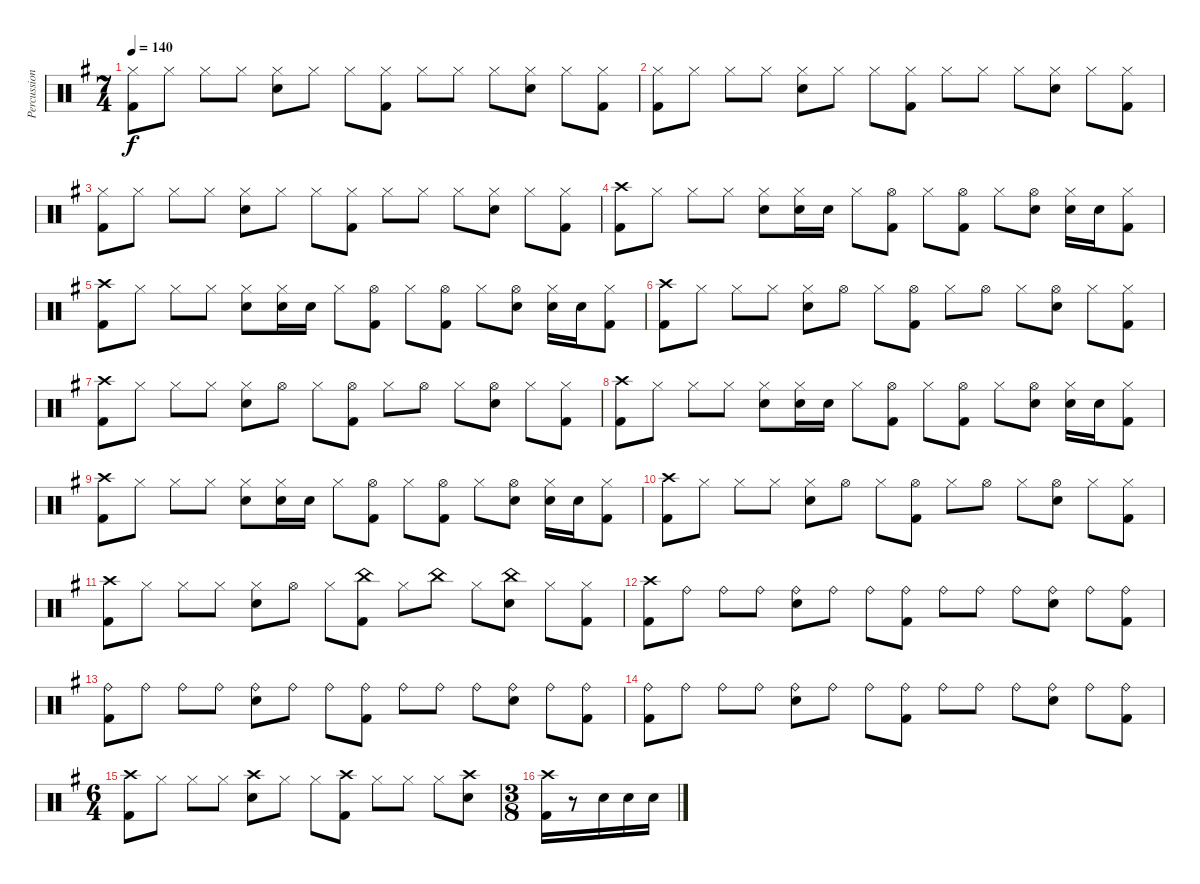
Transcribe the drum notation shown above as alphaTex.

\track ("Percussions" "Percussion") {instrument percussion}
\staff {score}
\articulation defaults
\ts (7 4)
\tempo 140
\clef neutral
\ks g
("Hi-Hat (closed)" "Kick (hit) 2").8{dy f} "Hi-Hat (closed)".8 "Hi-Hat (closed)".8 "Hi-Hat (closed)".8 ("Hi-Hat (closed)" "Snare (hit) 2").8 "Hi-Hat (closed)".8 "Hi-Hat (closed)".8 ("Hi-Hat (closed)" "Kick (hit) 2").8 "Hi-Hat (closed)".8 "Hi-Hat (closed)".8 "Hi-Hat (closed)".8 ("Hi-Hat (closed)" "Snare (hit) 2").8 "Hi-Hat (closed)".8 ("Hi-Hat (closed)" "Kick (hit) 2").8 |
("Hi-Hat (closed)" "Kick (hit) 2").8 "Hi-Hat (closed)".8 "Hi-Hat (closed)".8 "Hi-Hat (closed)".8 ("Hi-Hat (closed)" "Snare (hit) 2").8 "Hi-Hat (closed)".8 "Hi-Hat (closed)".8 ("Hi-Hat (closed)" "Kick (hit) 2").8 "Hi-Hat (closed)".8 "Hi-Hat (closed)".8 "Hi-Hat (closed)".8 ("Hi-Hat (closed)" "Snare (hit) 2").8 "Hi-Hat (closed)".8 ("Hi-Hat (closed)" "Kick (hit) 2").8 |
("Hi-Hat (closed)" "Kick (hit) 2").8 "Hi-Hat (closed)".8 "Hi-Hat (closed)".8 "Hi-Hat (closed)".8 ("Hi-Hat (closed)" "Snare (hit) 2").8 "Hi-Hat (closed)".8 "Hi-Hat (closed)".8 ("Hi-Hat (closed)" "Kick (hit) 2").8 "Hi-Hat (closed)".8 "Hi-Hat (closed)".8 "Hi-Hat (closed)".8 ("Hi-Hat (closed)" "Snare (hit) 2").8 "Hi-Hat (closed)".8 ("Hi-Hat (closed)" "Kick (hit) 2").8 |
("Crash high (hit)" "Kick (hit) 2").8 "Hi-Hat (closed)".8 "Hi-Hat (closed)".8 "Hi-Hat (closed)".8 ("Hi-Hat (closed)" "Snare (hit) 2").8 ("Hi-Hat (closed)" "Snare (hit) 2").16 "Snare (hit) 2".16 "Hi-Hat (closed)".8 ("Hi-Hat (open)" "Kick (hit) 2").8 "Hi-Hat (closed)".8 ("Hi-Hat (open)" "Kick (hit) 2").8 "Hi-Hat (closed)".8 ("Hi-Hat (open)" "Snare (hit) 2").8 ("Hi-Hat (closed)" "Snare (hit) 2").16 "Snare (hit) 2".16 ("Hi-Hat (closed)" "Kick (hit) 2").8 |
("Crash high (hit)" "Kick (hit) 2").8 "Hi-Hat (closed)".8 "Hi-Hat (closed)".8 "Hi-Hat (closed)".8 ("Hi-Hat (closed)" "Snare (hit) 2").8 ("Hi-Hat (closed)" "Snare (hit) 2").16 "Snare (hit) 2".16 "Hi-Hat (closed)".8 ("Hi-Hat (open)" "Kick (hit) 2").8 "Hi-Hat (closed)".8 ("Hi-Hat (open)" "Kick (hit) 2").8 "Hi-Hat (closed)".8 ("Hi-Hat (open)" "Snare (hit) 2").8 ("Hi-Hat (closed)" "Snare (hit) 2").16 "Snare (hit) 2".16 ("Hi-Hat (closed)" "Kick (hit) 2").8 |
("Crash high (hit)" "Kick (hit) 2").8 "Hi-Hat (closed)".8 "Hi-Hat (closed)".8 "Hi-Hat (closed)".8 ("Hi-Hat (closed)" "Snare (hit) 2").8 "Hi-Hat (open)".8 "Hi-Hat (closed)".8 ("Hi-Hat (open)" "Kick (hit) 2").8 "Hi-Hat (closed)".8 "Hi-Hat (open)".8 "Hi-Hat (closed)".8 ("Hi-Hat (open)" "Snare (hit) 2").8 "Hi-Hat (closed)".8 ("Hi-Hat (closed)" "Kick (hit) 2").8 |
("Crash high (hit)" "Kick (hit) 2").8 "Hi-Hat (closed)".8 "Hi-Hat (closed)".8 "Hi-Hat (closed)".8 ("Hi-Hat (closed)" "Snare (hit) 2").8 "Hi-Hat (open)".8 "Hi-Hat (closed)".8 ("Hi-Hat (open)" "Kick (hit) 2").8 "Hi-Hat (closed)".8 "Hi-Hat (open)".8 "Hi-Hat (closed)".8 ("Hi-Hat (open)" "Snare (hit) 2").8 "Hi-Hat (closed)".8 ("Hi-Hat (closed)" "Kick (hit) 2").8 |
("Crash high (hit)" "Kick (hit) 2").8 "Hi-Hat (closed)".8 "Hi-Hat (closed)".8 "Hi-Hat (closed)".8 ("Hi-Hat (closed)" "Snare (hit) 2").8 ("Hi-Hat (closed)" "Snare (hit) 2").16 "Snare (hit) 2".16 "Hi-Hat (closed)".8 ("Hi-Hat (open)" "Kick (hit) 2").8 "Hi-Hat (closed)".8 ("Hi-Hat (open)" "Kick (hit) 2").8 "Hi-Hat (closed)".8 ("Hi-Hat (open)" "Snare (hit) 2").8 ("Hi-Hat (closed)" "Snare (hit) 2").16 "Snare (hit) 2".16 ("Hi-Hat (closed)" "Kick (hit) 2").8 |
("Crash high (hit)" "Kick (hit) 2").8 "Hi-Hat (closed)".8 "Hi-Hat (closed)".8 "Hi-Hat (closed)".8 ("Hi-Hat (closed)" "Snare (hit) 2").8 ("Hi-Hat (closed)" "Snare (hit) 2").16 "Snare (hit) 2".16 "Hi-Hat (closed)".8 ("Hi-Hat (open)" "Kick (hit) 2").8 "Hi-Hat (closed)".8 ("Hi-Hat (open)" "Kick (hit) 2").8 "Hi-Hat (closed)".8 ("Hi-Hat (open)" "Snare (hit) 2").8 ("Hi-Hat (closed)" "Snare (hit) 2").16 "Snare (hit) 2".16 ("Hi-Hat (closed)" "Kick (hit) 2").8 |
("Crash high (hit)" "Kick (hit) 2").8 "Hi-Hat (closed)".8 "Hi-Hat (closed)".8 "Hi-Hat (closed)".8 ("Hi-Hat (closed)" "Snare (hit) 2").8 "Hi-Hat (open)".8 "Hi-Hat (closed)".8 ("Hi-Hat (open)" "Kick (hit) 2").8 "Hi-Hat (closed)".8 "Hi-Hat (open)".8 "Hi-Hat (closed)".8 ("Hi-Hat (open)" "Snare (hit) 2").8 "Hi-Hat (closed)".8 ("Hi-Hat (closed)" "Kick (hit) 2").8 |
("Crash high (hit)" "Kick (hit) 2").8 "Hi-Hat (closed)".8 "Hi-Hat (closed)".8 "Hi-Hat (closed)".8 ("Hi-Hat (closed)" "Snare (hit) 2").8 "Hi-Hat (open)".8 "Hi-Hat (closed)".8 ("China (hit)" "Kick (hit) 2").8 "Hi-Hat (closed)".8 "China (hit)".8 "Hi-Hat (closed)".8 ("China (hit)" "Snare (hit) 2").8 "Hi-Hat (closed)".8 ("Hi-Hat (closed)" "Kick (hit) 2").8 |
("Crash high (hit)" "Kick (hit) 2").8 "Ride (bell)".8 "Ride (bell)".8 "Ride (bell)".8 ("Ride (bell)" "Snare (hit) 2").8 "Ride (bell)".8 "Ride (bell)".8 ("Ride (bell)" "Kick (hit) 2").8 "Ride (bell)".8 "Ride (bell)".8 "Ride (bell)".8 ("Ride (bell)" "Snare (hit) 2").8 "Ride (bell)".8 ("Ride (bell)" "Kick (hit) 2").8 |
("Ride (bell)" "Kick (hit) 2").8 "Ride (bell)".8 "Ride (bell)".8 "Ride (bell)".8 ("Ride (bell)" "Snare (hit) 2").8 "Ride (bell)".8 "Ride (bell)".8 ("Ride (bell)" "Kick (hit) 2").8 "Ride (bell)".8 "Ride (bell)".8 "Ride (bell)".8 ("Ride (bell)" "Snare (hit) 2").8 "Ride (bell)".8 ("Ride (bell)" "Kick (hit) 2").8 |
("Ride (bell)" "Kick (hit) 2").8 "Ride (bell)".8 "Ride (bell)".8 "Ride (bell)".8 ("Ride (bell)" "Snare (hit) 2").8 "Ride (bell)".8 "Ride (bell)".8 ("Ride (bell)" "Kick (hit) 2").8 "Ride (bell)".8 "Ride (bell)".8 "Ride (bell)".8 ("Ride (bell)" "Snare (hit) 2").8 "Ride (bell)".8 ("Ride (bell)" "Kick (hit) 2").8 |
\ts (6 4)
("Crash high (hit)" "Kick (hit) 2").8 "Hi-Hat (closed)".8 "Hi-Hat (closed)".8 "Hi-Hat (closed)".8 ("Crash high (hit)" "Snare (hit) 2").8 "Hi-Hat (closed)".8 "Hi-Hat (closed)".8 ("Crash high (hit)" "Kick (hit) 2").8 "Hi-Hat (closed)".8 "Hi-Hat (closed)".8 "Hi-Hat (closed)".8 ("Crash high (hit)" "Snare (hit) 2").8 |
\ts (3 8)
("Crash high (hit)" "Kick (hit) 2").16 r.8 "Snare (hit) 2".16 "Snare (hit) 2".16 "Snare (hit) 2".16
